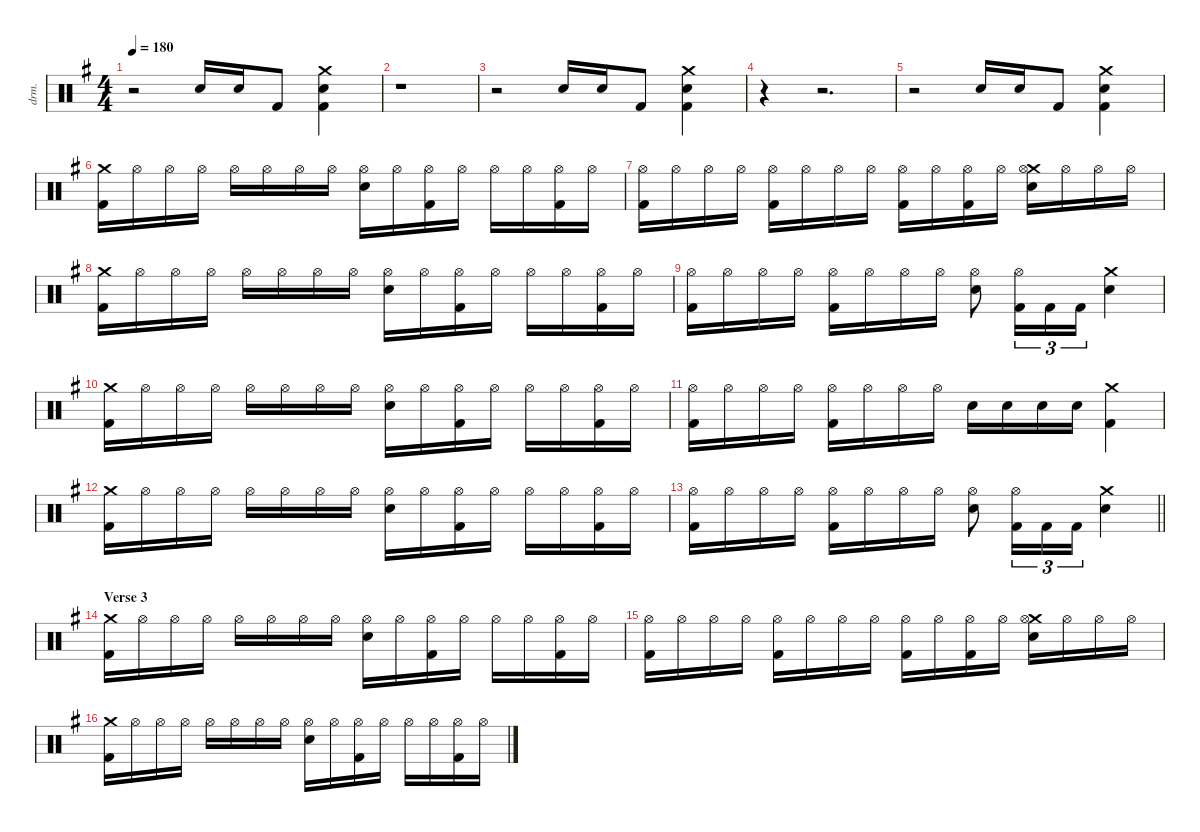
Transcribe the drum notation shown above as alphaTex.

\defaultSystemsLayout 4
\hideDynamics
\bracketExtendMode nobrackets
\otherSystemsTrackNameOrientation horizontal
\track ("Lars Ulrich" "drm.") {instrument percussion}
\staff {score}
\articulation defaults
\ts (4 4)
\tempo 180
\clef neutral
\ks eminor
r.2{dy f beam Down} "Snare (hit) 2"{acc forcenatural}.16{beam Up} "Snare (hit) 2"{acc forcenatural}.16{beam Up} "Kick (hit) 2"{acc forcenatural}.8{beam Up} ("Crash medium (hit)"{acc forcenatural} "Snare (hit) 2"{acc forcenatural} "Kick (hit) 2"{acc forcenatural}).4{beam Down} |
r.1{beam Down} |
r.2{beam Down} "Snare (hit) 2"{acc forcenatural}.16{beam Up} "Snare (hit) 2"{acc forcenatural}.16{beam Up} "Kick (hit) 2"{acc forcenatural}.8{beam Up} ("Crash medium (hit)"{acc forcenatural} "Snare (hit) 2"{acc forcenatural} "Kick (hit) 2"{acc forcenatural}).4{beam Down} |
r.4{beam Down} r.2{d beam Down} |
r.2{beam Down} "Snare (hit) 2"{acc forcenatural}.16{beam Up} "Snare (hit) 2"{acc forcenatural}.16{beam Up} "Kick (hit) 2"{acc forcenatural}.8{beam Up} ("Crash medium (hit)"{acc forcenatural} "Snare (hit) 2"{acc forcenatural} "Kick (hit) 2"{acc forcenatural}).4{beam Down} |
("Crash medium (hit)"{acc forcenatural} "Kick (hit) 2"{acc forcenatural}).16{beam Down} "Hi-Hat (open)"{acc forcenatural}.16{beam Down} "Hi-Hat (open)"{acc forcenatural}.16{beam Down} "Hi-Hat (open)"{acc forcenatural}.16{beam Down} "Hi-Hat (open)"{acc forcenatural}.16{beam Down} "Hi-Hat (open)"{acc forcenatural}.16{beam Down} "Hi-Hat (open)"{acc forcenatural}.16{beam Down} "Hi-Hat (open)"{acc forcenatural}.16{beam Down} ("Hi-Hat (open)"{acc forcenatural} "Snare (hit) 2"{acc forcenatural}).16{beam Down} "Hi-Hat (open)"{acc forcenatural}.16{beam Down} ("Hi-Hat (open)"{acc forcenatural} "Kick (hit) 2"{acc forcenatural}).16{beam Down} "Hi-Hat (open)"{acc forcenatural}.16{beam Down} "Hi-Hat (open)"{acc forcenatural}.16{beam Down} "Hi-Hat (open)"{acc forcenatural}.16{beam Down} ("Hi-Hat (open)"{acc forcenatural} "Kick (hit) 2"{acc forcenatural}).16{beam Down} "Hi-Hat (open)"{acc forcenatural}.16{beam Down} |
("Hi-Hat (open)"{acc forcenatural} "Kick (hit) 2"{acc forcenatural}).16{beam Down} "Hi-Hat (open)"{acc forcenatural}.16{beam Down} "Hi-Hat (open)"{acc forcenatural}.16{beam Down} "Hi-Hat (open)"{acc forcenatural}.16{beam Down} ("Hi-Hat (open)"{acc forcenatural} "Kick (hit) 2"{acc forcenatural}).16{beam Down} "Hi-Hat (open)"{acc forcenatural}.16{beam Down} "Hi-Hat (open)"{acc forcenatural}.16{beam Down} "Hi-Hat (open)"{acc forcenatural}.16{beam Down} ("Hi-Hat (open)"{acc forcenatural} "Kick (hit) 2"{acc forcenatural}).16{beam Down} "Hi-Hat (open)"{acc forcenatural}.16{beam Down} ("Hi-Hat (open)"{acc forcenatural} "Kick (hit) 2"{acc forcenatural}).16{beam Down} "Hi-Hat (open)"{acc forcenatural}.16{beam Down} ("Crash medium (hit)"{acc forcenatural} "Hi-Hat (open)"{acc forcenatural} "Snare (hit) 2"{acc forcenatural}).16{beam Down} "Hi-Hat (open)"{acc forcenatural}.16{beam Down} "Hi-Hat (open)"{acc forcenatural}.16{beam Down} "Hi-Hat (open)"{acc forcenatural}.16{beam Down} |
("Crash medium (hit)"{acc forcenatural} "Kick (hit) 2"{acc forcenatural}).16{beam Down} "Hi-Hat (open)"{acc forcenatural}.16{beam Down} "Hi-Hat (open)"{acc forcenatural}.16{beam Down} "Hi-Hat (open)"{acc forcenatural}.16{beam Down} "Hi-Hat (open)"{acc forcenatural}.16{beam Down} "Hi-Hat (open)"{acc forcenatural}.16{beam Down} "Hi-Hat (open)"{acc forcenatural}.16{beam Down} "Hi-Hat (open)"{acc forcenatural}.16{beam Down} ("Hi-Hat (open)"{acc forcenatural} "Snare (hit) 2"{acc forcenatural}).16{beam Down} "Hi-Hat (open)"{acc forcenatural}.16{beam Down} ("Hi-Hat (open)"{acc forcenatural} "Kick (hit) 2"{acc forcenatural}).16{beam Down} "Hi-Hat (open)"{acc forcenatural}.16{beam Down} "Hi-Hat (open)"{acc forcenatural}.16{beam Down} "Hi-Hat (open)"{acc forcenatural}.16{beam Down} ("Hi-Hat (open)"{acc forcenatural} "Kick (hit) 2"{acc forcenatural}).16{beam Down} "Hi-Hat (open)"{acc forcenatural}.16{beam Down} |
("Hi-Hat (open)"{acc forcenatural} "Kick (hit) 2"{acc forcenatural}).16{beam Down} "Hi-Hat (open)"{acc forcenatural}.16{beam Down} "Hi-Hat (open)"{acc forcenatural}.16{beam Down} "Hi-Hat (open)"{acc forcenatural}.16{beam Down} ("Hi-Hat (open)"{acc forcenatural} "Kick (hit) 2"{acc forcenatural}).16{beam Down} "Hi-Hat (open)"{acc forcenatural}.16{beam Down} "Hi-Hat (open)"{acc forcenatural}.16{beam Down} "Hi-Hat (open)"{acc forcenatural}.16{beam Down} ("Hi-Hat (open)"{acc forcenatural} "Snare (hit) 2"{acc forcenatural}).8{beam Down} ("Hi-Hat (open)"{acc forcenatural} "Kick (hit) 2"{acc forcenatural}).16{tu (3 2) beam Down} "Kick (hit) 2"{acc forcenatural}.16{tu (3 2) beam Down} "Kick (hit) 2"{acc forcenatural}.16{tu (3 2) beam Down} ("Crash medium (hit)"{acc forcenatural} "Snare (hit) 2"{acc forcenatural}).4{beam Down} |
("Crash medium (hit)"{acc forcenatural} "Kick (hit) 2"{acc forcenatural}).16{beam Down} "Hi-Hat (open)"{acc forcenatural}.16{beam Down} "Hi-Hat (open)"{acc forcenatural}.16{beam Down} "Hi-Hat (open)"{acc forcenatural}.16{beam Down} "Hi-Hat (open)"{acc forcenatural}.16{beam Down} "Hi-Hat (open)"{acc forcenatural}.16{beam Down} "Hi-Hat (open)"{acc forcenatural}.16{beam Down} "Hi-Hat (open)"{acc forcenatural}.16{beam Down} ("Hi-Hat (open)"{acc forcenatural} "Snare (hit) 2"{acc forcenatural}).16{beam Down} "Hi-Hat (open)"{acc forcenatural}.16{beam Down} ("Hi-Hat (open)"{acc forcenatural} "Kick (hit) 2"{acc forcenatural}).16{beam Down} "Hi-Hat (open)"{acc forcenatural}.16{beam Down} "Hi-Hat (open)"{acc forcenatural}.16{beam Down} "Hi-Hat (open)"{acc forcenatural}.16{beam Down} ("Hi-Hat (open)"{acc forcenatural} "Kick (hit) 2"{acc forcenatural}).16{beam Down} "Hi-Hat (open)"{acc forcenatural}.16{beam Down} |
("Hi-Hat (open)"{acc forcenatural} "Kick (hit) 2"{acc forcenatural}).16{beam Down} "Hi-Hat (open)"{acc forcenatural}.16{beam Down} "Hi-Hat (open)"{acc forcenatural}.16{beam Down} "Hi-Hat (open)"{acc forcenatural}.16{beam Down} ("Hi-Hat (open)"{acc forcenatural} "Kick (hit) 2"{acc forcenatural}).16{beam Down} "Hi-Hat (open)"{acc forcenatural}.16{beam Down} "Hi-Hat (open)"{acc forcenatural}.16{beam Down} "Hi-Hat (open)"{acc forcenatural}.16{beam Down} "Snare (hit) 2"{acc forcenatural}.16{beam Down} "Snare (hit) 2"{acc forcenatural}.16{beam Down} "Snare (hit) 2"{acc forcenatural}.16{beam Down} "Snare (hit) 2"{acc forcenatural}.16{beam Down} ("Crash medium (hit)"{acc forcenatural} "Kick (hit) 2"{acc forcenatural}).4{beam Down} |
("Crash medium (hit)"{acc forcenatural} "Kick (hit) 2"{acc forcenatural}).16{beam Down} "Hi-Hat (open)"{acc forcenatural}.16{beam Down} "Hi-Hat (open)"{acc forcenatural}.16{beam Down} "Hi-Hat (open)"{acc forcenatural}.16{beam Down} "Hi-Hat (open)"{acc forcenatural}.16{beam Down} "Hi-Hat (open)"{acc forcenatural}.16{beam Down} "Hi-Hat (open)"{acc forcenatural}.16{beam Down} "Hi-Hat (open)"{acc forcenatural}.16{beam Down} ("Hi-Hat (open)"{acc forcenatural} "Snare (hit) 2"{acc forcenatural}).16{beam Down} "Hi-Hat (open)"{acc forcenatural}.16{beam Down} ("Hi-Hat (open)"{acc forcenatural} "Kick (hit) 2"{acc forcenatural}).16{beam Down} "Hi-Hat (open)"{acc forcenatural}.16{beam Down} "Hi-Hat (open)"{acc forcenatural}.16{beam Down} "Hi-Hat (open)"{acc forcenatural}.16{beam Down} ("Hi-Hat (open)"{acc forcenatural} "Kick (hit) 2"{acc forcenatural}).16{beam Down} "Hi-Hat (open)"{acc forcenatural}.16{beam Down} |
\barLineRight lightlight
("Hi-Hat (open)"{acc forcenatural} "Kick (hit) 2"{acc forcenatural}).16{beam Down} "Hi-Hat (open)"{acc forcenatural}.16{beam Down} "Hi-Hat (open)"{acc forcenatural}.16{beam Down} "Hi-Hat (open)"{acc forcenatural}.16{beam Down} ("Hi-Hat (open)"{acc forcenatural} "Kick (hit) 2"{acc forcenatural}).16{beam Down} "Hi-Hat (open)"{acc forcenatural}.16{beam Down} "Hi-Hat (open)"{acc forcenatural}.16{beam Down} "Hi-Hat (open)"{acc forcenatural}.16{beam Down} ("Hi-Hat (open)"{acc forcenatural} "Snare (hit) 2"{acc forcenatural}).8{beam Down} ("Hi-Hat (open)"{acc forcenatural} "Kick (hit) 2"{acc forcenatural}).16{tu (3 2) beam Down} "Kick (hit) 2"{acc forcenatural}.16{tu (3 2) beam Down} "Kick (hit) 2"{acc forcenatural}.16{tu (3 2) beam Down} ("Crash medium (hit)"{acc forcenatural} "Snare (hit) 2"{acc forcenatural}).4{beam Down} |
\section ("" "Verse 3")
("Crash medium (hit)"{acc forcenatural} "Kick (hit) 2"{acc forcenatural}).16{beam Down} "Hi-Hat (open)"{acc forcenatural}.16{beam Down} "Hi-Hat (open)"{acc forcenatural}.16{beam Down} "Hi-Hat (open)"{acc forcenatural}.16{beam Down} "Hi-Hat (open)"{acc forcenatural}.16{beam Down} "Hi-Hat (open)"{acc forcenatural}.16{beam Down} "Hi-Hat (open)"{acc forcenatural}.16{beam Down} "Hi-Hat (open)"{acc forcenatural}.16{beam Down} ("Hi-Hat (open)"{acc forcenatural} "Snare (hit) 2"{acc forcenatural}).16{beam Down} "Hi-Hat (open)"{acc forcenatural}.16{beam Down} ("Hi-Hat (open)"{acc forcenatural} "Kick (hit) 2"{acc forcenatural}).16{beam Down} "Hi-Hat (open)"{acc forcenatural}.16{beam Down} "Hi-Hat (open)"{acc forcenatural}.16{beam Down} "Hi-Hat (open)"{acc forcenatural}.16{beam Down} ("Hi-Hat (open)"{acc forcenatural} "Kick (hit) 2"{acc forcenatural}).16{beam Down} "Hi-Hat (open)"{acc forcenatural}.16{beam Down} |
("Hi-Hat (open)"{acc forcenatural} "Kick (hit) 2"{acc forcenatural}).16{beam Down} "Hi-Hat (open)"{acc forcenatural}.16{beam Down} "Hi-Hat (open)"{acc forcenatural}.16{beam Down} "Hi-Hat (open)"{acc forcenatural}.16{beam Down} ("Hi-Hat (open)"{acc forcenatural} "Kick (hit) 2"{acc forcenatural}).16{beam Down} "Hi-Hat (open)"{acc forcenatural}.16{beam Down} "Hi-Hat (open)"{acc forcenatural}.16{beam Down} "Hi-Hat (open)"{acc forcenatural}.16{beam Down} ("Hi-Hat (open)"{acc forcenatural} "Kick (hit) 2"{acc forcenatural}).16{beam Down} "Hi-Hat (open)"{acc forcenatural}.16{beam Down} ("Hi-Hat (open)"{acc forcenatural} "Kick (hit) 2"{acc forcenatural}).16{beam Down} "Hi-Hat (open)"{acc forcenatural}.16{beam Down} ("Crash medium (hit)"{acc forcenatural} "Hi-Hat (open)"{acc forcenatural} "Snare (hit) 2"{acc forcenatural}).16{beam Down} "Hi-Hat (open)"{acc forcenatural}.16{beam Down} "Hi-Hat (open)"{acc forcenatural}.16{beam Down} "Hi-Hat (open)"{acc forcenatural}.16{beam Down} |
("Crash medium (hit)"{acc forcenatural} "Kick (hit) 2"{acc forcenatural}).16{beam Down} "Hi-Hat (open)"{acc forcenatural}.16{beam Down} "Hi-Hat (open)"{acc forcenatural}.16{beam Down} "Hi-Hat (open)"{acc forcenatural}.16{beam Down} "Hi-Hat (open)"{acc forcenatural}.16{beam Down} "Hi-Hat (open)"{acc forcenatural}.16{beam Down} "Hi-Hat (open)"{acc forcenatural}.16{beam Down} "Hi-Hat (open)"{acc forcenatural}.16{beam Down} ("Hi-Hat (open)"{acc forcenatural} "Snare (hit) 2"{acc forcenatural}).16{beam Down} "Hi-Hat (open)"{acc forcenatural}.16{beam Down} ("Hi-Hat (open)"{acc forcenatural} "Kick (hit) 2"{acc forcenatural}).16{beam Down} "Hi-Hat (open)"{acc forcenatural}.16{beam Down} "Hi-Hat (open)"{acc forcenatural}.16{beam Down} "Hi-Hat (open)"{acc forcenatural}.16{beam Down} ("Hi-Hat (open)"{acc forcenatural} "Kick (hit) 2"{acc forcenatural}).16{beam Down} "Hi-Hat (open)"{acc forcenatural}.16{beam Down}
